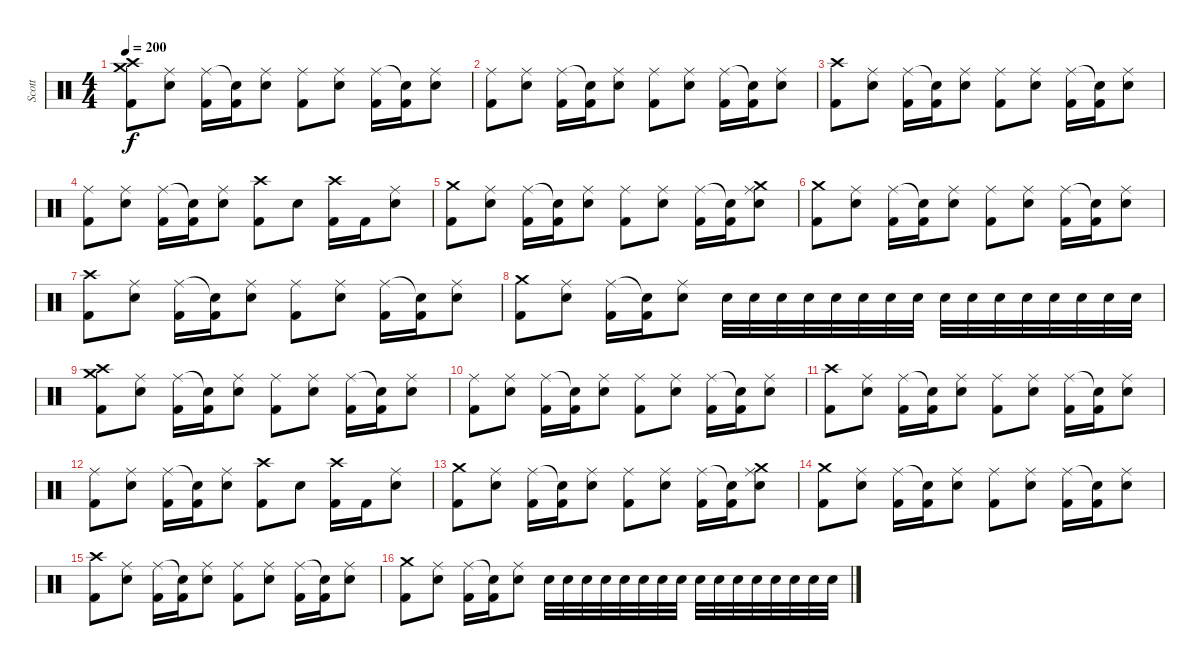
\track ("Scott" "Scott") {instrument percussion}
\staff {score}
\articulation defaults
\ts (4 4)
\tempo 200
\clef neutral
\ks c
("Crash medium (hit)" "Crash high (hit)" "Kick (hit) 2").8{dy f} ("Ride (middle)" "Snare (hit) 2").8 ("Ride (middle)" "Kick (hit) 2").16 ("Snare (hit)"{t} "Kick (hit) 2").16 ("Ride (middle)" "Snare (hit) 2").8 ("Ride (middle)" "Kick (hit) 2").8 ("Ride (middle)" "Snare (hit) 2").8 ("Ride (middle)" "Kick (hit) 2").16 ("Snare (hit)"{t} "Kick (hit) 2").16 ("Ride (middle)" "Snare (hit) 2").8 |
("Ride (middle)" "Kick (hit) 2").8 ("Ride (middle)" "Snare (hit) 2").8 ("Ride (middle)" "Kick (hit) 2").16 ("Snare (hit)"{t} "Kick (hit) 2").16 ("Ride (middle)" "Snare (hit) 2").8 ("Ride (middle)" "Kick (hit) 2").8 ("Ride (middle)" "Snare (hit) 2").8 ("Ride (middle)" "Kick (hit) 2").16 ("Snare (hit)"{t} "Kick (hit) 2").16 ("Ride (middle)" "Snare (hit) 2").8 |
("Crash high (hit)" "Kick (hit) 2").8 ("Ride (middle)" "Snare (hit) 2").8 ("Ride (middle)" "Kick (hit) 2").16 ("Snare (hit)"{t} "Kick (hit) 2").16 ("Ride (middle)" "Snare (hit) 2").8 ("Ride (middle)" "Kick (hit) 2").8 ("Ride (middle)" "Snare (hit) 2").8 ("Ride (middle)" "Kick (hit) 2").16 ("Snare (hit)"{t} "Kick (hit) 2").16 ("Ride (middle)" "Snare (hit) 2").8 |
("Ride (middle)" "Kick (hit) 2").8 ("Ride (middle)" "Snare (hit) 2").8 ("Ride (middle)" "Kick (hit) 2").16 ("Snare (hit)"{t} "Kick (hit) 2").16 ("Ride (middle)" "Snare (hit) 2").8 ("Crash high (hit)" "Kick (hit) 2").8 "Snare (hit) 2".8 ("Crash high (hit)" "Kick (hit) 2").16 "Kick (hit) 2".16 ("Ride (middle)" "Snare (hit) 2").8 |
("Crash medium (hit)" "Kick (hit) 2").8 ("Ride (middle)" "Snare (hit) 2").8 ("Ride (middle)" "Kick (hit) 2").16 ("Snare (hit)"{t} "Kick (hit) 2").16 ("Ride (middle)" "Snare (hit) 2").8 ("Ride (middle)" "Kick (hit) 2").8 ("Ride (middle)" "Snare (hit) 2").8 ("Ride (middle)" "Kick (hit) 2").16 ("Snare (hit)"{t} "Kick (hit) 2").16 ("Crash medium (hit)" "Ride (middle)" "Snare (hit) 2").8 |
("Crash medium (hit)" "Kick (hit) 2").8 ("Ride (middle)" "Snare (hit) 2").8 ("Ride (middle)" "Kick (hit) 2").16 ("Snare (hit)"{t} "Kick (hit) 2").16 ("Ride (middle)" "Snare (hit) 2").8 ("Ride (middle)" "Kick (hit) 2").8 ("Ride (middle)" "Snare (hit) 2").8 ("Ride (middle)" "Kick (hit) 2").16 ("Snare (hit)"{t} "Kick (hit) 2").16 ("Ride (middle)" "Snare (hit) 2").8 |
("Crash high (hit)" "Kick (hit) 2").8 ("Ride (middle)" "Snare (hit) 2").8 ("Ride (middle)" "Kick (hit) 2").16 ("Snare (hit)"{t} "Kick (hit) 2").16 ("Ride (middle)" "Snare (hit) 2").8 ("Ride (middle)" "Kick (hit) 2").8 ("Ride (middle)" "Snare (hit) 2").8 ("Ride (middle)" "Kick (hit) 2").16 ("Snare (hit)"{t} "Kick (hit) 2").16 ("Ride (middle)" "Snare (hit) 2").8 |
("Crash medium (hit)" "Kick (hit) 2").8 ("Ride (middle)" "Snare (hit) 2").8 ("Ride (middle)" "Kick (hit) 2").16 ("Snare (hit)"{t} "Kick (hit) 2").16 ("Ride (middle)" "Snare (hit) 2").8 "Snare (hit) 2".32 "Snare (hit) 2".32 "Snare (hit) 2".32 "Snare (hit) 2".32 "Snare (hit) 2".32 "Snare (hit) 2".32 "Snare (hit) 2".32 "Snare (hit) 2".32 "Snare (hit) 2".32 "Snare (hit) 2".32 "Snare (hit) 2".32 "Snare (hit) 2".32 "Snare (hit) 2".32 "Snare (hit) 2".32 "Snare (hit) 2".32 "Snare (hit) 2".32 |
("Crash medium (hit)" "Crash high (hit)" "Kick (hit) 2").8 ("Ride (middle)" "Snare (hit) 2").8 ("Ride (middle)" "Kick (hit) 2").16 ("Snare (hit)"{t} "Kick (hit) 2").16 ("Ride (middle)" "Snare (hit) 2").8 ("Ride (middle)" "Kick (hit) 2").8 ("Ride (middle)" "Snare (hit) 2").8 ("Ride (middle)" "Kick (hit) 2").16 ("Snare (hit)"{t} "Kick (hit) 2").16 ("Ride (middle)" "Snare (hit) 2").8 |
("Ride (middle)" "Kick (hit) 2").8 ("Ride (middle)" "Snare (hit) 2").8 ("Ride (middle)" "Kick (hit) 2").16 ("Snare (hit)"{t} "Kick (hit) 2").16 ("Ride (middle)" "Snare (hit) 2").8 ("Ride (middle)" "Kick (hit) 2").8 ("Ride (middle)" "Snare (hit) 2").8 ("Ride (middle)" "Kick (hit) 2").16 ("Snare (hit)"{t} "Kick (hit) 2").16 ("Ride (middle)" "Snare (hit) 2").8 |
("Crash high (hit)" "Kick (hit) 2").8 ("Ride (middle)" "Snare (hit) 2").8 ("Ride (middle)" "Kick (hit) 2").16 ("Snare (hit)"{t} "Kick (hit) 2").16 ("Ride (middle)" "Snare (hit) 2").8 ("Ride (middle)" "Kick (hit) 2").8 ("Ride (middle)" "Snare (hit) 2").8 ("Ride (middle)" "Kick (hit) 2").16 ("Snare (hit)"{t} "Kick (hit) 2").16 ("Ride (middle)" "Snare (hit) 2").8 |
("Ride (middle)" "Kick (hit) 2").8 ("Ride (middle)" "Snare (hit) 2").8 ("Ride (middle)" "Kick (hit) 2").16 ("Snare (hit)"{t} "Kick (hit) 2").16 ("Ride (middle)" "Snare (hit) 2").8 ("Crash high (hit)" "Kick (hit) 2").8 "Snare (hit) 2".8 ("Crash high (hit)" "Kick (hit) 2").16 "Kick (hit) 2".16 ("Ride (middle)" "Snare (hit) 2").8 |
("Crash medium (hit)" "Kick (hit) 2").8 ("Ride (middle)" "Snare (hit) 2").8 ("Ride (middle)" "Kick (hit) 2").16 ("Snare (hit)"{t} "Kick (hit) 2").16 ("Ride (middle)" "Snare (hit) 2").8 ("Ride (middle)" "Kick (hit) 2").8 ("Ride (middle)" "Snare (hit) 2").8 ("Ride (middle)" "Kick (hit) 2").16 ("Snare (hit)"{t} "Kick (hit) 2").16 ("Crash medium (hit)" "Ride (middle)" "Snare (hit) 2").8 |
("Crash medium (hit)" "Kick (hit) 2").8 ("Ride (middle)" "Snare (hit) 2").8 ("Ride (middle)" "Kick (hit) 2").16 ("Snare (hit)"{t} "Kick (hit) 2").16 ("Ride (middle)" "Snare (hit) 2").8 ("Ride (middle)" "Kick (hit) 2").8 ("Ride (middle)" "Snare (hit) 2").8 ("Ride (middle)" "Kick (hit) 2").16 ("Snare (hit)"{t} "Kick (hit) 2").16 ("Ride (middle)" "Snare (hit) 2").8 |
("Crash high (hit)" "Kick (hit) 2").8 ("Ride (middle)" "Snare (hit) 2").8 ("Ride (middle)" "Kick (hit) 2").16 ("Snare (hit)"{t} "Kick (hit) 2").16 ("Ride (middle)" "Snare (hit) 2").8 ("Ride (middle)" "Kick (hit) 2").8 ("Ride (middle)" "Snare (hit) 2").8 ("Ride (middle)" "Kick (hit) 2").16 ("Snare (hit)"{t} "Kick (hit) 2").16 ("Ride (middle)" "Snare (hit) 2").8 |
("Crash medium (hit)" "Kick (hit) 2").8 ("Ride (middle)" "Snare (hit) 2").8 ("Ride (middle)" "Kick (hit) 2").16 ("Snare (hit)"{t} "Kick (hit) 2").16 ("Ride (middle)" "Snare (hit) 2").8 "Snare (hit) 2".32 "Snare (hit) 2".32 "Snare (hit) 2".32 "Snare (hit) 2".32 "Snare (hit) 2".32 "Snare (hit) 2".32 "Snare (hit) 2".32 "Snare (hit) 2".32 "Snare (hit) 2".32 "Snare (hit) 2".32 "Snare (hit) 2".32 "Snare (hit) 2".32 "Snare (hit) 2".32 "Snare (hit) 2".32 "Snare (hit) 2".32 "Snare (hit) 2".32
